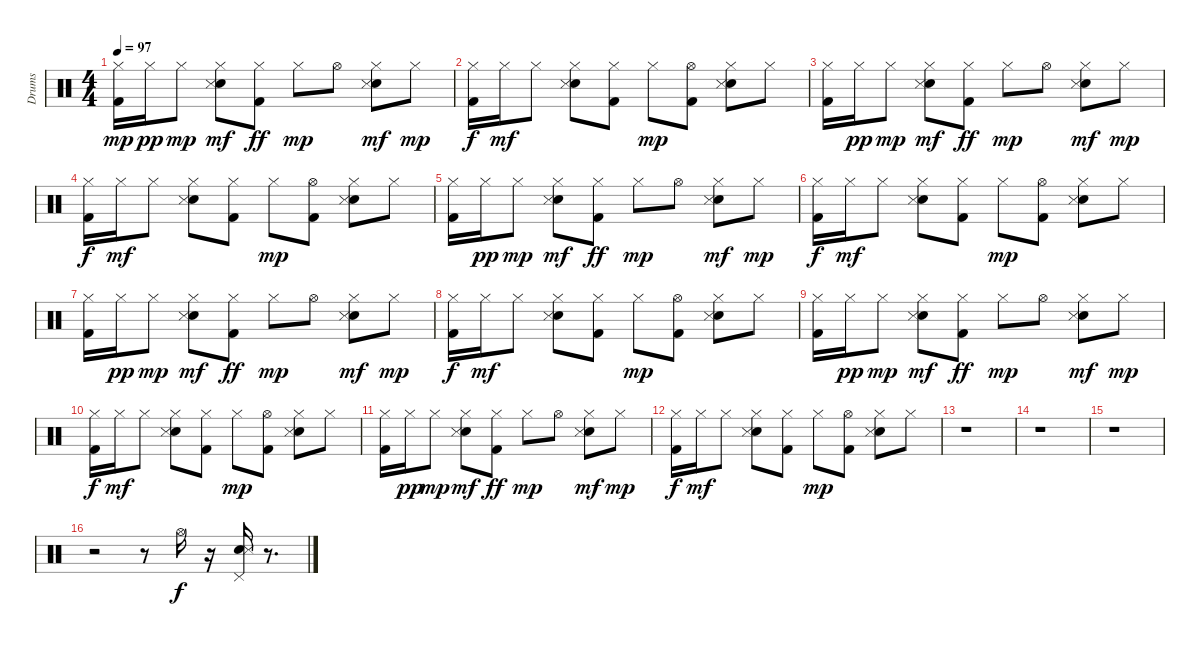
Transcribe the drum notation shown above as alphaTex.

\track ("Drums" "Drums") {instrument percussion}
\staff {score}
\articulation defaults
\ts (4 4)
\tempo 97
\clef neutral
\ks c
("Hi-Hat (closed)" "Kick (hit) 2").16{dy mp} "Hi-Hat (closed)".16{dy pp} "Hi-Hat (closed)".8{dy mp} ("Hi-Hat (closed)" "Hand Clap (hit)" "Snare (side stick) 3").8{dy mf} ("Hi-Hat (closed)" "Kick (hit) 2").8{dy ff} "Hi-Hat (closed)".8{dy mp} "Hi-Hat (open)".8 ("Hi-Hat (closed)" "Hand Clap (hit)" "Snare (side stick) 3").8{dy mf} "Hi-Hat (closed)".8{dy mp} |
("Hi-Hat (closed)" "Kick (hit) 2").16{dy f} "Hi-Hat (closed)".16{dy mf} "Hi-Hat (closed)".8 ("Hi-Hat (closed)" "Hand Clap (hit)" "Snare (side stick) 3").8 ("Hi-Hat (closed)" "Kick (hit) 2").8 "Hi-Hat (closed)".8{dy mp} ("Kick (hit) 2" "Hi-Hat (open)").8 ("Hi-Hat (closed)" "Hand Clap (hit)" "Snare (side stick) 3").8 "Hi-Hat (closed)".8 |
("Hi-Hat (closed)" "Kick (hit) 2").16 "Hi-Hat (closed)".16{dy pp} "Hi-Hat (closed)".8{dy mp} ("Hi-Hat (closed)" "Hand Clap (hit)" "Snare (side stick) 3").8{dy mf} ("Hi-Hat (closed)" "Kick (hit) 2").8{dy ff} "Hi-Hat (closed)".8{dy mp} "Hi-Hat (open)".8 ("Hi-Hat (closed)" "Hand Clap (hit)" "Snare (side stick) 3").8{dy mf} "Hi-Hat (closed)".8{dy mp} |
("Hi-Hat (closed)" "Kick (hit) 2").16{dy f} "Hi-Hat (closed)".16{dy mf} "Hi-Hat (closed)".8 ("Hi-Hat (closed)" "Hand Clap (hit)" "Snare (side stick) 3").8 ("Hi-Hat (closed)" "Kick (hit) 2").8 "Hi-Hat (closed)".8{dy mp} ("Kick (hit) 2" "Hi-Hat (open)").8 ("Hi-Hat (closed)" "Hand Clap (hit)" "Snare (side stick) 3").8 "Hi-Hat (closed)".8 |
("Hi-Hat (closed)" "Kick (hit) 2").16 "Hi-Hat (closed)".16{dy pp} "Hi-Hat (closed)".8{dy mp} ("Hi-Hat (closed)" "Hand Clap (hit)" "Snare (side stick) 3").8{dy mf} ("Hi-Hat (closed)" "Kick (hit) 2").8{dy ff} "Hi-Hat (closed)".8{dy mp} "Hi-Hat (open)".8 ("Hi-Hat (closed)" "Hand Clap (hit)" "Snare (side stick) 3").8{dy mf} "Hi-Hat (closed)".8{dy mp} |
("Hi-Hat (closed)" "Kick (hit) 2").16{dy f} "Hi-Hat (closed)".16{dy mf} "Hi-Hat (closed)".8 ("Hi-Hat (closed)" "Hand Clap (hit)" "Snare (side stick) 3").8 ("Hi-Hat (closed)" "Kick (hit) 2").8 "Hi-Hat (closed)".8{dy mp} ("Kick (hit) 2" "Hi-Hat (open)").8 ("Hi-Hat (closed)" "Hand Clap (hit)" "Snare (side stick) 3").8 "Hi-Hat (closed)".8 |
("Hi-Hat (closed)" "Kick (hit) 2").16 "Hi-Hat (closed)".16{dy pp} "Hi-Hat (closed)".8{dy mp} ("Hi-Hat (closed)" "Hand Clap (hit)" "Snare (side stick) 3").8{dy mf} ("Hi-Hat (closed)" "Kick (hit) 2").8{dy ff} "Hi-Hat (closed)".8{dy mp} "Hi-Hat (open)".8 ("Hi-Hat (closed)" "Hand Clap (hit)" "Snare (side stick) 3").8{dy mf} "Hi-Hat (closed)".8{dy mp} |
("Hi-Hat (closed)" "Kick (hit) 2").16{dy f} "Hi-Hat (closed)".16{dy mf} "Hi-Hat (closed)".8 ("Hi-Hat (closed)" "Hand Clap (hit)" "Snare (side stick) 3").8 ("Hi-Hat (closed)" "Kick (hit) 2").8 "Hi-Hat (closed)".8{dy mp} ("Kick (hit) 2" "Hi-Hat (open)").8 ("Hi-Hat (closed)" "Hand Clap (hit)" "Snare (side stick) 3").8 "Hi-Hat (closed)".8 |
("Hi-Hat (closed)" "Kick (hit) 2").16 "Hi-Hat (closed)".16{dy pp} "Hi-Hat (closed)".8{dy mp} ("Hi-Hat (closed)" "Hand Clap (hit)" "Snare (side stick) 3").8{dy mf} ("Hi-Hat (closed)" "Kick (hit) 2").8{dy ff} "Hi-Hat (closed)".8{dy mp} "Hi-Hat (open)".8 ("Hi-Hat (closed)" "Hand Clap (hit)" "Snare (side stick) 3").8{dy mf} "Hi-Hat (closed)".8{dy mp} |
("Hi-Hat (closed)" "Kick (hit) 2").16{dy f} "Hi-Hat (closed)".16{dy mf} "Hi-Hat (closed)".8 ("Hi-Hat (closed)" "Hand Clap (hit)" "Snare (side stick) 3").8 ("Hi-Hat (closed)" "Kick (hit) 2").8 "Hi-Hat (closed)".8{dy mp} ("Kick (hit) 2" "Hi-Hat (open)").8 ("Hi-Hat (closed)" "Hand Clap (hit)" "Snare (side stick) 3").8 "Hi-Hat (closed)".8 |
("Hi-Hat (closed)" "Kick (hit) 2").16 "Hi-Hat (closed)".16{dy pp} "Hi-Hat (closed)".8{dy mp} ("Hi-Hat (closed)" "Hand Clap (hit)" "Snare (side stick) 3").8{dy mf} ("Hi-Hat (closed)" "Kick (hit) 2").8{dy ff} "Hi-Hat (closed)".8{dy mp} "Hi-Hat (open)".8 ("Hi-Hat (closed)" "Hand Clap (hit)" "Snare (side stick) 3").8{dy mf} "Hi-Hat (closed)".8{dy mp} |
("Hi-Hat (closed)" "Kick (hit) 2").16{dy f} "Hi-Hat (closed)".16{dy mf} "Hi-Hat (closed)".8 ("Hi-Hat (closed)" "Hand Clap (hit)" "Snare (side stick) 3").8 ("Hi-Hat (closed)" "Kick (hit) 2").8 "Hi-Hat (closed)".8{dy mp} ("Kick (hit) 2" "Hi-Hat (open)").8 ("Hi-Hat (closed)" "Hand Clap (hit)" "Snare (side stick) 3").8 "Hi-Hat (closed)".8 |
r.1 |
r.1 |
r.1 |
r.2 r.8 "Hi-Hat (open)".16{dy f} r.16 ("Hand Clap (hit)" "Pedal Hi-Hat (hit)" "Snare (side stick) 3").16 r.8{d}
